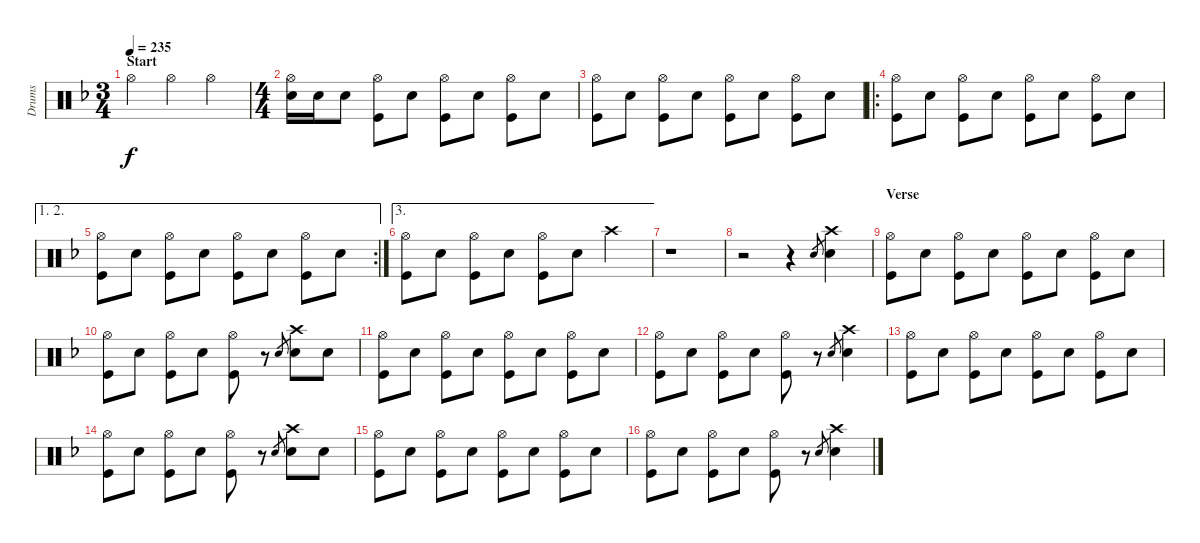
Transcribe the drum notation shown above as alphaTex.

\track ("Drums" "Drums") {instrument percussion}
\staff {score}
\articulation defaults
\ts (3 4)
\section ("" "Start")
\tempo 235
\clef neutral
\ks f "Hi-Hat (open)".4{dy f} "Hi-Hat (open)".4 "Hi-Hat (open)".4
|
\ts (4 4)
("Hi-Hat (open)" "Electric Snare (hit)").16 "Electric Snare (hit)".16 "Electric Snare (hit)".8 ("Hi-Hat (open)" "Kick (hit)").8 "Electric Snare (hit)".8 ("Hi-Hat (open)" "Kick (hit)").8 "Electric Snare (hit)".8 ("Hi-Hat (open)" "Kick (hit)").8 "Electric Snare (hit)".8 |
("Hi-Hat (open)" "Kick (hit)").8 "Electric Snare (hit)".8 ("Hi-Hat (open)" "Kick (hit)").8 "Electric Snare (hit)".8 ("Hi-Hat (open)" "Kick (hit)").8 "Electric Snare (hit)".8 ("Hi-Hat (open)" "Kick (hit)").8 "Electric Snare (hit)".8 |
\ro
("Hi-Hat (open)" "Kick (hit)").8 "Electric Snare (hit)".8 ("Hi-Hat (open)" "Kick (hit)").8 "Electric Snare (hit)".8 ("Hi-Hat (open)" "Kick (hit)").8 "Electric Snare (hit)".8 ("Hi-Hat (open)" "Kick (hit)").8 "Electric Snare (hit)".8 |
\ae (1 2)
\rc 2
("Hi-Hat (open)" "Kick (hit)").8 "Electric Snare (hit)".8 ("Hi-Hat (open)" "Kick (hit)").8 "Electric Snare (hit)".8 ("Hi-Hat (open)" "Kick (hit)").8 "Electric Snare (hit)".8 ("Hi-Hat (open)" "Kick (hit)").8 "Electric Snare (hit)".8 |
\ae 3
("Hi-Hat (open)" "Kick (hit)").8 "Electric Snare (hit)".8 ("Hi-Hat (open)" "Kick (hit)").8 "Electric Snare (hit)".8 ("Hi-Hat (open)" "Kick (hit)").8 "Electric Snare (hit)".8 "Crash high (hit)".4 |
r.1 |
r.2 r.4 "Electric Snare (hit)".8{gr} ("Crash high (hit)" "Electric Snare (hit)").4 |
\section ("" "Verse")
("Hi-Hat (open)" "Kick (hit)").8 "Electric Snare (hit)".8 ("Hi-Hat (open)" "Kick (hit)").8 "Electric Snare (hit)".8 ("Hi-Hat (open)" "Kick (hit)").8 "Electric Snare (hit)".8 ("Hi-Hat (open)" "Kick (hit)").8 "Electric Snare (hit)".8 |
("Hi-Hat (open)" "Kick (hit)").8 "Electric Snare (hit)".8 ("Hi-Hat (open)" "Kick (hit)").8 "Electric Snare (hit)".8 ("Hi-Hat (open)" "Kick (hit)").8 r.8 "Electric Snare (hit)".8{gr} ("Crash high (hit)" "Electric Snare (hit)").8 "Electric Snare (hit)".8 |
("Hi-Hat (open)" "Kick (hit)").8 "Electric Snare (hit)".8 ("Hi-Hat (open)" "Kick (hit)").8 "Electric Snare (hit)".8 ("Hi-Hat (open)" "Kick (hit)").8 "Electric Snare (hit)".8 ("Hi-Hat (open)" "Kick (hit)").8 "Electric Snare (hit)".8 |
("Hi-Hat (open)" "Kick (hit)").8 "Electric Snare (hit)".8 ("Hi-Hat (open)" "Kick (hit)").8 "Electric Snare (hit)".8 ("Hi-Hat (open)" "Kick (hit)").8 r.8 "Electric Snare (hit)".8{gr} ("Crash high (hit)" "Electric Snare (hit)").4 |
("Hi-Hat (open)" "Kick (hit)").8 "Electric Snare (hit)".8 ("Hi-Hat (open)" "Kick (hit)").8 "Electric Snare (hit)".8 ("Hi-Hat (open)" "Kick (hit)").8 "Electric Snare (hit)".8 ("Hi-Hat (open)" "Kick (hit)").8 "Electric Snare (hit)".8 |
("Hi-Hat (open)" "Kick (hit)").8 "Electric Snare (hit)".8 ("Hi-Hat (open)" "Kick (hit)").8 "Electric Snare (hit)".8 ("Hi-Hat (open)" "Kick (hit)").8 r.8 "Electric Snare (hit)".8{gr} ("Crash high (hit)" "Electric Snare (hit)").8 "Electric Snare (hit)".8 |
("Hi-Hat (open)" "Kick (hit)").8 "Electric Snare (hit)".8 ("Hi-Hat (open)" "Kick (hit)").8 "Electric Snare (hit)".8 ("Hi-Hat (open)" "Kick (hit)").8 "Electric Snare (hit)".8 ("Hi-Hat (open)" "Kick (hit)").8 "Electric Snare (hit)".8 |
("Hi-Hat (open)" "Kick (hit)").8 "Electric Snare (hit)".8 ("Hi-Hat (open)" "Kick (hit)").8 "Electric Snare (hit)".8 ("Hi-Hat (open)" "Kick (hit)").8 r.8 "Electric Snare (hit)".8{gr} ("Crash high (hit)" "Electric Snare (hit)").4
